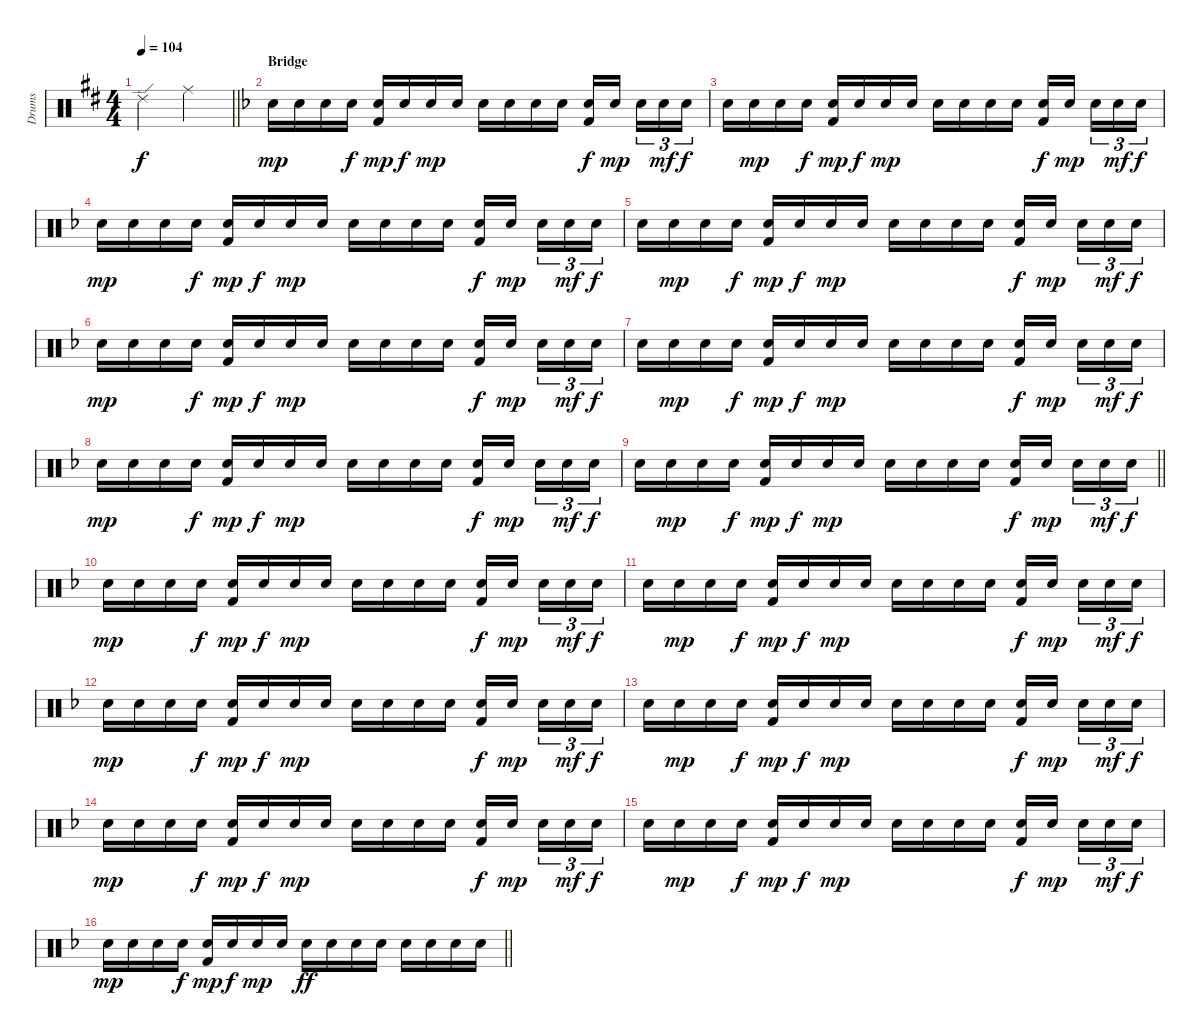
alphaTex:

\track ("Drums" "Drums") {instrument percussion}
\staff {score}
\articulation defaults
\ts (4 4)
\tempo 104
\clef neutral
\barLineRight lightlight
\ks bminor "Ride (edge) 2".2{dy f} "Ride (middle)".2
|
\section ("" "Bridge")
\ks dminor "Snare (hit) 2".16{dy mp} "Snare (hit) 2".16 "Snare (hit) 2".16 "Snare (hit) 2".16{dy f}
("Snare (hit) 2" "Kick (hit) 2").16{dy mp} "Snare (hit) 2".16{dy f} "Snare (hit) 2".16{dy mp} "Snare (hit) 2".16 "Snare (hit) 2".16 "Snare (hit) 2".16 "Snare (hit) 2".16 "Snare (hit) 2".16 ("Snare (hit) 2" "Kick (hit) 2").16{dy f} "Snare (hit) 2".16{dy mp beam splitsecondary} "Snare (hit) 2".16{tu (3 2)} "Snare (hit) 2".16{tu (3 2) dy mf} "Snare (hit) 2".16{tu (3 2) dy f} |
"Snare (hit) 2".16 "Snare (hit) 2".16{dy mp} "Snare (hit) 2".16 "Snare (hit) 2".16{dy f} ("Snare (hit) 2" "Kick (hit) 2").16{dy mp} "Snare (hit) 2".16{dy f} "Snare (hit) 2".16{dy mp} "Snare (hit) 2".16 "Snare (hit) 2".16 "Snare (hit) 2".16 "Snare (hit) 2".16 "Snare (hit) 2".16 ("Snare (hit) 2" "Kick (hit) 2").16{dy f} "Snare (hit) 2".16{dy mp beam splitsecondary} "Snare (hit) 2".16{tu (3 2)} "Snare (hit) 2".16{tu (3 2) dy mf} "Snare (hit) 2".16{tu (3 2) dy f} |
"Snare (hit) 2".16{dy mp} "Snare (hit) 2".16 "Snare (hit) 2".16 "Snare (hit) 2".16{dy f} ("Snare (hit) 2" "Kick (hit) 2").16{dy mp} "Snare (hit) 2".16{dy f} "Snare (hit) 2".16{dy mp} "Snare (hit) 2".16 "Snare (hit) 2".16 "Snare (hit) 2".16 "Snare (hit) 2".16 "Snare (hit) 2".16 ("Snare (hit) 2" "Kick (hit) 2").16{dy f} "Snare (hit) 2".16{dy mp beam splitsecondary} "Snare (hit) 2".16{tu (3 2)} "Snare (hit) 2".16{tu (3 2) dy mf} "Snare (hit) 2".16{tu (3 2) dy f} |
"Snare (hit) 2".16 "Snare (hit) 2".16{dy mp} "Snare (hit) 2".16 "Snare (hit) 2".16{dy f} ("Snare (hit) 2" "Kick (hit) 2").16{dy mp} "Snare (hit) 2".16{dy f} "Snare (hit) 2".16{dy mp} "Snare (hit) 2".16 "Snare (hit) 2".16 "Snare (hit) 2".16 "Snare (hit) 2".16 "Snare (hit) 2".16 ("Snare (hit) 2" "Kick (hit) 2").16{dy f} "Snare (hit) 2".16{dy mp beam splitsecondary} "Snare (hit) 2".16{tu (3 2)} "Snare (hit) 2".16{tu (3 2) dy mf} "Snare (hit) 2".16{tu (3 2) dy f} |
"Snare (hit) 2".16{dy mp} "Snare (hit) 2".16 "Snare (hit) 2".16 "Snare (hit) 2".16{dy f} ("Snare (hit) 2" "Kick (hit) 2").16{dy mp} "Snare (hit) 2".16{dy f} "Snare (hit) 2".16{dy mp} "Snare (hit) 2".16 "Snare (hit) 2".16 "Snare (hit) 2".16 "Snare (hit) 2".16 "Snare (hit) 2".16 ("Snare (hit) 2" "Kick (hit) 2").16{dy f} "Snare (hit) 2".16{dy mp beam splitsecondary} "Snare (hit) 2".16{tu (3 2)} "Snare (hit) 2".16{tu (3 2) dy mf} "Snare (hit) 2".16{tu (3 2) dy f} |
"Snare (hit) 2".16 "Snare (hit) 2".16{dy mp} "Snare (hit) 2".16 "Snare (hit) 2".16{dy f} ("Snare (hit) 2" "Kick (hit) 2").16{dy mp} "Snare (hit) 2".16{dy f} "Snare (hit) 2".16{dy mp} "Snare (hit) 2".16 "Snare (hit) 2".16 "Snare (hit) 2".16 "Snare (hit) 2".16 "Snare (hit) 2".16 ("Snare (hit) 2" "Kick (hit) 2").16{dy f} "Snare (hit) 2".16{dy mp beam splitsecondary} "Snare (hit) 2".16{tu (3 2)} "Snare (hit) 2".16{tu (3 2) dy mf} "Snare (hit) 2".16{tu (3 2) dy f} |
"Snare (hit) 2".16{dy mp} "Snare (hit) 2".16 "Snare (hit) 2".16 "Snare (hit) 2".16{dy f} ("Snare (hit) 2" "Kick (hit) 2").16{dy mp} "Snare (hit) 2".16{dy f} "Snare (hit) 2".16{dy mp} "Snare (hit) 2".16 "Snare (hit) 2".16 "Snare (hit) 2".16 "Snare (hit) 2".16 "Snare (hit) 2".16 ("Snare (hit) 2" "Kick (hit) 2").16{dy f} "Snare (hit) 2".16{dy mp beam splitsecondary} "Snare (hit) 2".16{tu (3 2)} "Snare (hit) 2".16{tu (3 2) dy mf} "Snare (hit) 2".16{tu (3 2) dy f} |
\barLineRight lightlight "Snare (hit) 2".16 "Snare (hit) 2".16{dy mp} "Snare (hit) 2".16 "Snare (hit) 2".16{dy f}
("Snare (hit) 2" "Kick (hit) 2").16{dy mp} "Snare (hit) 2".16{dy f} "Snare (hit) 2".16{dy mp} "Snare (hit) 2".16 "Snare (hit) 2".16 "Snare (hit) 2".16 "Snare (hit) 2".16 "Snare (hit) 2".16 ("Snare (hit) 2" "Kick (hit) 2").16{dy f} "Snare (hit) 2".16{dy mp beam splitsecondary} "Snare (hit) 2".16{tu (3 2)} "Snare (hit) 2".16{tu (3 2) dy mf} "Snare (hit) 2".16{tu (3 2) dy f} |
"Snare (hit) 2".16{dy mp} "Snare (hit) 2".16 "Snare (hit) 2".16 "Snare (hit) 2".16{dy f} ("Snare (hit) 2" "Kick (hit) 2").16{dy mp} "Snare (hit) 2".16{dy f} "Snare (hit) 2".16{dy mp} "Snare (hit) 2".16 "Snare (hit) 2".16 "Snare (hit) 2".16 "Snare (hit) 2".16 "Snare (hit) 2".16 ("Snare (hit) 2" "Kick (hit) 2").16{dy f} "Snare (hit) 2".16{dy mp beam splitsecondary} "Snare (hit) 2".16{tu (3 2)} "Snare (hit) 2".16{tu (3 2) dy mf} "Snare (hit) 2".16{tu (3 2) dy f} |
"Snare (hit) 2".16 "Snare (hit) 2".16{dy mp} "Snare (hit) 2".16 "Snare (hit) 2".16{dy f} ("Snare (hit) 2" "Kick (hit) 2").16{dy mp} "Snare (hit) 2".16{dy f} "Snare (hit) 2".16{dy mp} "Snare (hit) 2".16 "Snare (hit) 2".16 "Snare (hit) 2".16 "Snare (hit) 2".16 "Snare (hit) 2".16 ("Snare (hit) 2" "Kick (hit) 2").16{dy f} "Snare (hit) 2".16{dy mp beam splitsecondary} "Snare (hit) 2".16{tu (3 2)} "Snare (hit) 2".16{tu (3 2) dy mf} "Snare (hit) 2".16{tu (3 2) dy f} |
"Snare (hit) 2".16{dy mp} "Snare (hit) 2".16 "Snare (hit) 2".16 "Snare (hit) 2".16{dy f} ("Snare (hit) 2" "Kick (hit) 2").16{dy mp} "Snare (hit) 2".16{dy f} "Snare (hit) 2".16{dy mp} "Snare (hit) 2".16 "Snare (hit) 2".16 "Snare (hit) 2".16 "Snare (hit) 2".16 "Snare (hit) 2".16 ("Snare (hit) 2" "Kick (hit) 2").16{dy f} "Snare (hit) 2".16{dy mp beam splitsecondary} "Snare (hit) 2".16{tu (3 2)} "Snare (hit) 2".16{tu (3 2) dy mf} "Snare (hit) 2".16{tu (3 2) dy f} |
"Snare (hit) 2".16 "Snare (hit) 2".16{dy mp} "Snare (hit) 2".16 "Snare (hit) 2".16{dy f} ("Snare (hit) 2" "Kick (hit) 2").16{dy mp} "Snare (hit) 2".16{dy f} "Snare (hit) 2".16{dy mp} "Snare (hit) 2".16 "Snare (hit) 2".16 "Snare (hit) 2".16 "Snare (hit) 2".16 "Snare (hit) 2".16 ("Snare (hit) 2" "Kick (hit) 2").16{dy f} "Snare (hit) 2".16{dy mp beam splitsecondary} "Snare (hit) 2".16{tu (3 2)} "Snare (hit) 2".16{tu (3 2) dy mf} "Snare (hit) 2".16{tu (3 2) dy f} |
"Snare (hit) 2".16{dy mp} "Snare (hit) 2".16 "Snare (hit) 2".16 "Snare (hit) 2".16{dy f} ("Snare (hit) 2" "Kick (hit) 2").16{dy mp} "Snare (hit) 2".16{dy f} "Snare (hit) 2".16{dy mp} "Snare (hit) 2".16 "Snare (hit) 2".16 "Snare (hit) 2".16 "Snare (hit) 2".16 "Snare (hit) 2".16 ("Snare (hit) 2" "Kick (hit) 2").16{dy f} "Snare (hit) 2".16{dy mp beam splitsecondary} "Snare (hit) 2".16{tu (3 2)} "Snare (hit) 2".16{tu (3 2) dy mf} "Snare (hit) 2".16{tu (3 2) dy f} |
"Snare (hit) 2".16 "Snare (hit) 2".16{dy mp} "Snare (hit) 2".16 "Snare (hit) 2".16{dy f} ("Snare (hit) 2" "Kick (hit) 2").16{dy mp} "Snare (hit) 2".16{dy f} "Snare (hit) 2".16{dy mp} "Snare (hit) 2".16 "Snare (hit) 2".16 "Snare (hit) 2".16 "Snare (hit) 2".16 "Snare (hit) 2".16 ("Snare (hit) 2" "Kick (hit) 2").16{dy f} "Snare (hit) 2".16{dy mp beam splitsecondary} "Snare (hit) 2".16{tu (3 2)} "Snare (hit) 2".16{tu (3 2) dy mf} "Snare (hit) 2".16{tu (3 2) dy f} |
\barLineRight lightlight "Snare (hit) 2".16{dy mp} "Snare (hit) 2".16 "Snare (hit) 2".16 "Snare (hit) 2".16{dy f}
("Snare (hit) 2" "Kick (hit) 2").16{dy mp} "Snare (hit) 2".16{dy f} "Snare (hit) 2".16{dy mp} "Snare (hit) 2".16 "Snare (hit) 2".16{dy ff} "Snare (hit) 2".16 "Snare (hit) 2".16 "Snare (hit) 2".16 "Snare (hit) 2".16 "Snare (hit) 2".16 "Snare (hit) 2".16 "Snare (hit) 2".16
